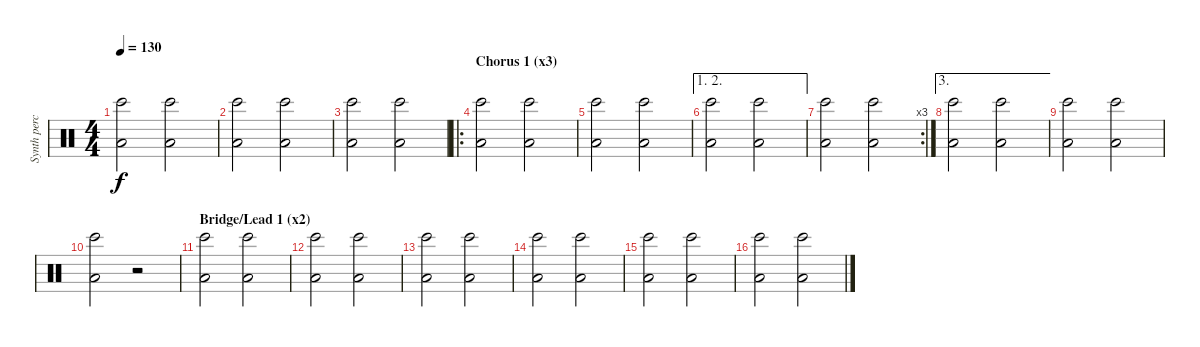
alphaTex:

\track ("Synth perc" "Synth perc") {instrument percussion}
\staff {score}
\articulation defaults
\ts (4 4)
\tempo 130
\clef neutral
\ks c
("Bongo High (hit)" "Low Tom (hit)").2{dy f} ("Bongo High (hit)" "Low Tom (hit)").2 |
("Bongo High (hit)" "Low Tom (hit)").2 ("Bongo High (hit)" "Low Tom (hit)").2 |
("Bongo High (hit)" "Low Tom (hit)").2 ("Bongo High (hit)" "Low Tom (hit)").2 |
\ro
\section ("" "Chorus 1 (x3)")
("Bongo High (hit)" "Low Tom (hit)").2 ("Bongo High (hit)" "Low Tom (hit)").2 |
("Bongo High (hit)" "Low Tom (hit)").2 ("Bongo High (hit)" "Low Tom (hit)").2 |
\ae (1 2)
("Bongo High (hit)" "Low Tom (hit)").2 ("Bongo High (hit)" "Low Tom (hit)").2 |
\rc 3
("Bongo High (hit)" "Low Tom (hit)").2 ("Bongo High (hit)" "Low Tom (hit)").2 |
\ae 3
("Bongo High (hit)" "Low Tom (hit)").2 ("Bongo High (hit)" "Low Tom (hit)").2 |
("Bongo High (hit)" "Low Tom (hit)").2 ("Bongo High (hit)" "Low Tom (hit)").2 |
("Bongo High (hit)" "Low Tom (hit)").2 r.2 |
\section ("" "Bridge/Lead 1 (x2)")
("Bongo High (hit)" "Low Tom (hit)").2 ("Bongo High (hit)" "Low Tom (hit)").2 |
("Bongo High (hit)" "Low Tom (hit)").2 ("Bongo High (hit)" "Low Tom (hit)").2 |
("Bongo High (hit)" "Low Tom (hit)").2 ("Bongo High (hit)" "Low Tom (hit)").2 |
("Bongo High (hit)" "Low Tom (hit)").2 ("Bongo High (hit)" "Low Tom (hit)").2 |
("Bongo High (hit)" "Low Tom (hit)").2 ("Bongo High (hit)" "Low Tom (hit)").2 |
("Bongo High (hit)" "Low Tom (hit)").2 ("Bongo High (hit)" "Low Tom (hit)").2
